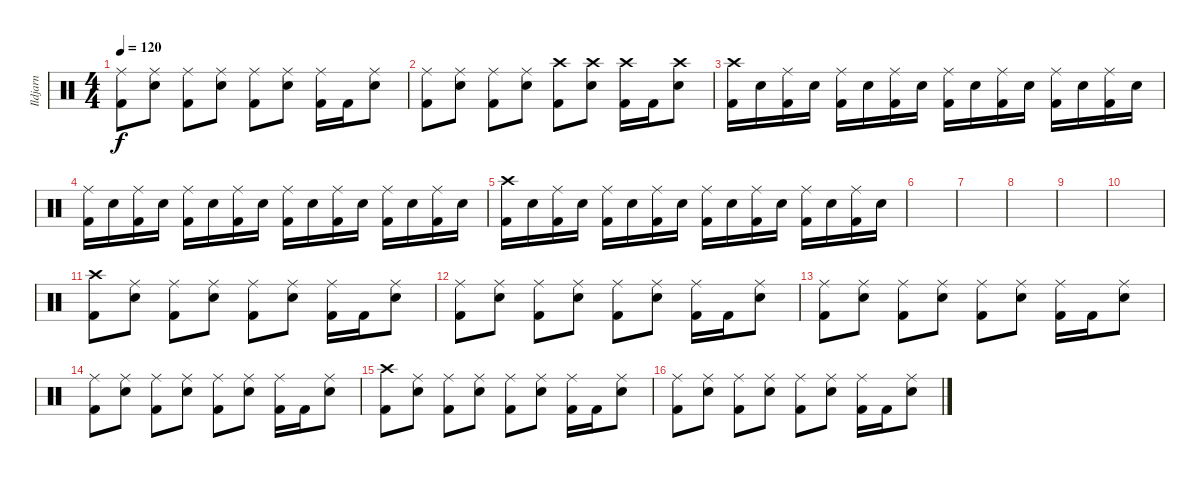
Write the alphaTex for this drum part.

\track ("Ildjarn" "Ildjarn") {instrument percussion}
\staff {score}
\articulation defaults
\ts (4 4)
\tempo 120
\clef neutral
\ks c
("Ride (middle)" "Kick (hit) 2").8{dy f} ("Ride (middle)" "Snare (hit) 2").8 ("Ride (middle)" "Kick (hit) 2").8 ("Ride (middle)" "Snare (hit) 2").8 ("Ride (middle)" "Kick (hit) 2").8 ("Ride (middle)" "Snare (hit) 2").8 ("Ride (middle)" "Kick (hit) 2").16 "Kick (hit) 2".16 ("Ride (middle)" "Snare (hit) 2").8 |
("Ride (middle)" "Kick (hit) 2").8 ("Ride (middle)" "Snare (hit) 2").8 ("Ride (middle)" "Kick (hit) 2").8 ("Ride (middle)" "Snare (hit) 2").8 ("Crash high (hit)" "Kick (hit) 2").8 ("Crash high (hit)" "Snare (hit) 2").8 ("Crash high (hit)" "Kick (hit) 2").16 "Kick (hit) 2".16 ("Crash high (hit)" "Snare (hit) 2").8 |
("Crash high (hit)" "Kick (hit) 2").16 "Snare (hit) 2".16 ("Ride (middle)" "Kick (hit) 2").16 "Snare (hit) 2".16 ("Ride (middle)" "Kick (hit) 2").16 "Snare (hit) 2".16 ("Ride (middle)" "Kick (hit) 2").16 "Snare (hit) 2".16 ("Ride (middle)" "Kick (hit) 2").16 "Snare (hit) 2".16 ("Ride (middle)" "Kick (hit) 2").16 "Snare (hit) 2".16 ("Ride (middle)" "Kick (hit) 2").16 "Snare (hit) 2".16 ("Ride (middle)" "Kick (hit) 2").16 "Snare (hit) 2".16 |
("Ride (middle)" "Kick (hit) 2").16 "Snare (hit) 2".16 ("Ride (middle)" "Kick (hit) 2").16 "Snare (hit) 2".16 ("Ride (middle)" "Kick (hit) 2").16 "Snare (hit) 2".16 ("Ride (middle)" "Kick (hit) 2").16 "Snare (hit) 2".16 ("Ride (middle)" "Kick (hit) 2").16 "Snare (hit) 2".16 ("Ride (middle)" "Kick (hit) 2").16 "Snare (hit) 2".16 ("Ride (middle)" "Kick (hit) 2").16 "Snare (hit) 2".16 ("Ride (middle)" "Kick (hit) 2").16 "Snare (hit) 2".16 |
("Crash high (hit)" "Kick (hit) 2").16 "Snare (hit) 2".16 ("Ride (middle)" "Kick (hit) 2").16 "Snare (hit) 2".16 ("Ride (middle)" "Kick (hit) 2").16 "Snare (hit) 2".16 ("Ride (middle)" "Kick (hit) 2").16 "Snare (hit) 2".16 ("Ride (middle)" "Kick (hit) 2").16 "Snare (hit) 2".16 ("Ride (middle)" "Kick (hit) 2").16 "Snare (hit) 2".16 ("Ride (middle)" "Kick (hit) 2").16 "Snare (hit) 2".16 ("Ride (middle)" "Kick (hit) 2").16 "Snare (hit) 2".16 |
|
|
|
|
|
("Crash high (hit)" "Kick (hit) 2").8 ("Ride (middle)" "Snare (hit) 2").8 ("Ride (middle)" "Kick (hit) 2").8 ("Ride (middle)" "Snare (hit) 2").8 ("Ride (middle)" "Kick (hit) 2").8 ("Ride (middle)" "Snare (hit) 2").8 ("Ride (middle)" "Kick (hit) 2").16 "Kick (hit) 2".16 ("Ride (middle)" "Snare (hit) 2").8 |
("Ride (middle)" "Kick (hit) 2").8 ("Ride (middle)" "Snare (hit) 2").8 ("Ride (middle)" "Kick (hit) 2").8 ("Ride (middle)" "Snare (hit) 2").8 ("Ride (middle)" "Kick (hit) 2").8 ("Ride (middle)" "Snare (hit) 2").8 ("Ride (middle)" "Kick (hit) 2").16 "Kick (hit) 2".16 ("Ride (middle)" "Snare (hit) 2").8 |
("Ride (middle)" "Kick (hit) 2").8 ("Ride (middle)" "Snare (hit) 2").8 ("Ride (middle)" "Kick (hit) 2").8 ("Ride (middle)" "Snare (hit) 2").8 ("Ride (middle)" "Kick (hit) 2").8 ("Ride (middle)" "Snare (hit) 2").8 ("Ride (middle)" "Kick (hit) 2").16 "Kick (hit) 2".16 ("Ride (middle)" "Snare (hit) 2").8 |
("Ride (middle)" "Kick (hit) 2").8 ("Ride (middle)" "Snare (hit) 2").8 ("Ride (middle)" "Kick (hit) 2").8 ("Ride (middle)" "Snare (hit) 2").8 ("Ride (middle)" "Kick (hit) 2").8 ("Ride (middle)" "Snare (hit) 2").8 ("Ride (middle)" "Kick (hit) 2").16 "Kick (hit) 2".16 ("Ride (middle)" "Snare (hit) 2").8 |
("Crash high (hit)" "Kick (hit) 2").8 ("Ride (middle)" "Snare (hit) 2").8 ("Ride (middle)" "Kick (hit) 2").8 ("Ride (middle)" "Snare (hit) 2").8 ("Ride (middle)" "Kick (hit) 2").8 ("Ride (middle)" "Snare (hit) 2").8 ("Ride (middle)" "Kick (hit) 2").16 "Kick (hit) 2".16 ("Ride (middle)" "Snare (hit) 2").8 |
("Ride (middle)" "Kick (hit) 2").8 ("Ride (middle)" "Snare (hit) 2").8 ("Ride (middle)" "Kick (hit) 2").8 ("Ride (middle)" "Snare (hit) 2").8 ("Ride (middle)" "Kick (hit) 2").8 ("Ride (middle)" "Snare (hit) 2").8 ("Ride (middle)" "Kick (hit) 2").16 "Kick (hit) 2".16 ("Ride (middle)" "Snare (hit) 2").8
